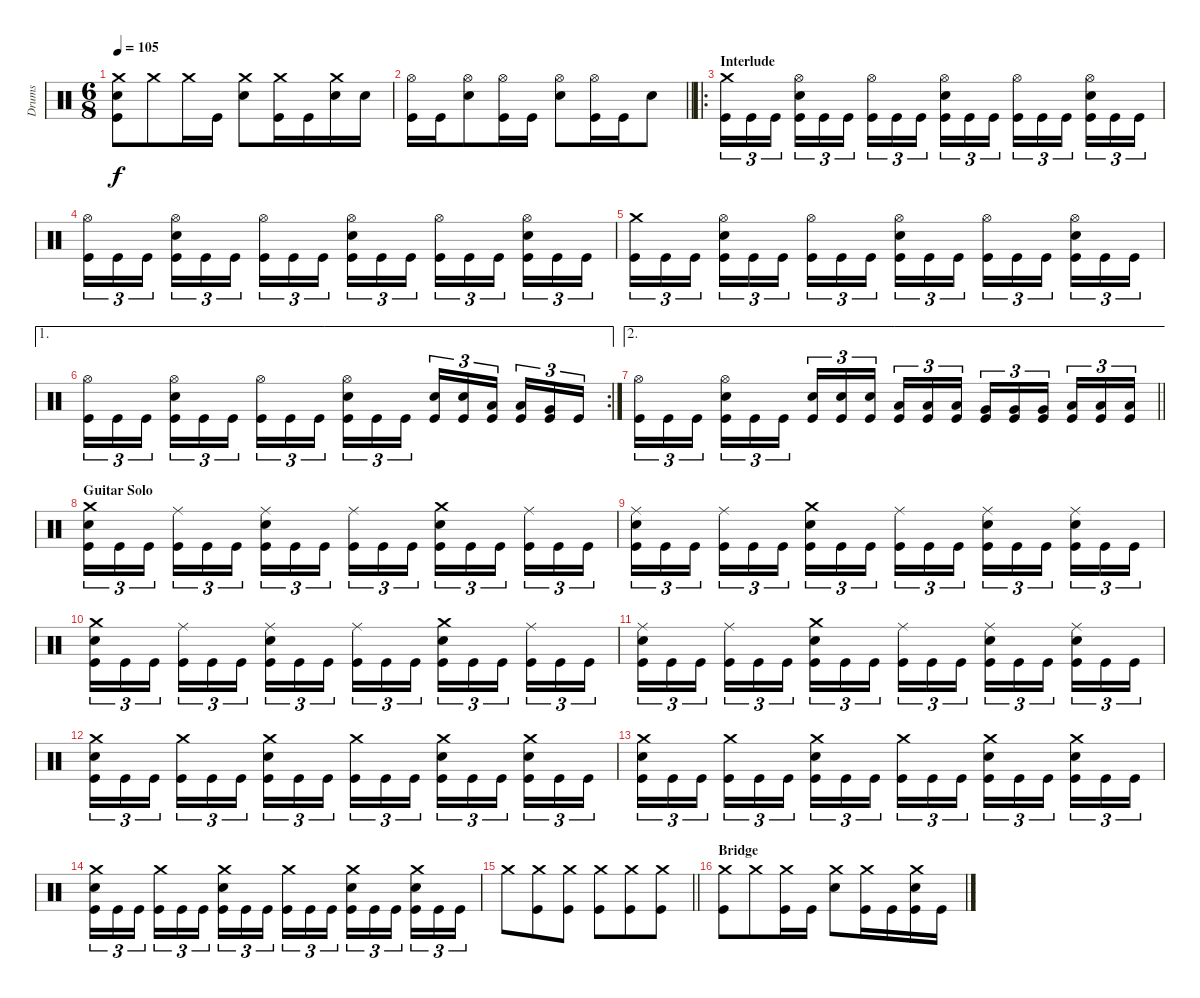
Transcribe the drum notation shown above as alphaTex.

\track ("Drums" "Drums") {instrument percussion}
\staff {score}
\articulation defaults
\ts (6 8)
\tempo 105
\clef neutral
\ks c
("Crash medium (hit)" "Electric Snare (hit)" "Kick (hit)").8{dy f} "Crash medium (hit)".8 "Crash medium (hit)".16 "Kick (hit)".16 ("Crash medium (hit)" "Electric Snare (hit)").8 ("Crash medium (hit)" "Kick (hit)").16 "Kick (hit)".16 ("Crash medium (hit)" "Electric Snare (hit)").16 "Electric Snare (hit)".16 |
\barLineRight lightlight
("Hi-Hat (open)" "Kick (hit)").16 "Kick (hit)".16 ("Hi-Hat (open)" "Electric Snare (hit)").8 ("Hi-Hat (open)" "Kick (hit)").16 "Kick (hit)".16 ("Hi-Hat (open)" "Electric Snare (hit)").8 ("Hi-Hat (open)" "Kick (hit)").16 "Kick (hit)".16 "Electric Snare (hit)".8 |
\ro
\section ("" "Interlude")
("Crash medium (hit)" "Kick (hit)").16{tu (3 2)} "Kick (hit)".16{tu (3 2)} "Kick (hit)".16{tu (3 2) beam splitsecondary} ("Hi-Hat (open)" "Electric Snare (hit)" "Kick (hit)").16{tu (3 2)} "Kick (hit)".16{tu (3 2)} "Kick (hit)".16{tu (3 2) beam splitsecondary} ("Hi-Hat (open)" "Kick (hit)").16{tu (3 2)} "Kick (hit)".16{tu (3 2)} "Kick (hit)".16{tu (3 2)} ("Hi-Hat (open)" "Electric Snare (hit)" "Kick (hit)").16{tu (3 2)} "Kick (hit)".16{tu (3 2)} "Kick (hit)".16{tu (3 2) beam splitsecondary} ("Hi-Hat (open)" "Kick (hit)").16{tu (3 2)} "Kick (hit)".16{tu (3 2)} "Kick (hit)".16{tu (3 2) beam splitsecondary} ("Hi-Hat (open)" "Electric Snare (hit)" "Kick (hit)").16{tu (3 2)} "Kick (hit)".16{tu (3 2)} "Kick (hit)".16{tu (3 2)} |
("Hi-Hat (open)" "Kick (hit)").16{tu (3 2)} "Kick (hit)".16{tu (3 2)} "Kick (hit)".16{tu (3 2) beam splitsecondary} ("Hi-Hat (open)" "Electric Snare (hit)" "Kick (hit)").16{tu (3 2)} "Kick (hit)".16{tu (3 2)} "Kick (hit)".16{tu (3 2) beam splitsecondary} ("Hi-Hat (open)" "Kick (hit)").16{tu (3 2)} "Kick (hit)".16{tu (3 2)} "Kick (hit)".16{tu (3 2)} ("Hi-Hat (open)" "Electric Snare (hit)" "Kick (hit)").16{tu (3 2)} "Kick (hit)".16{tu (3 2)} "Kick (hit)".16{tu (3 2) beam splitsecondary} ("Hi-Hat (open)" "Kick (hit)").16{tu (3 2)} "Kick (hit)".16{tu (3 2)} "Kick (hit)".16{tu (3 2) beam splitsecondary} ("Hi-Hat (open)" "Electric Snare (hit)" "Kick (hit)").16{tu (3 2)} "Kick (hit)".16{tu (3 2)} "Kick (hit)".16{tu (3 2)} |
("Crash medium (hit)" "Kick (hit)").16{tu (3 2)} "Kick (hit)".16{tu (3 2)} "Kick (hit)".16{tu (3 2) beam splitsecondary} ("Hi-Hat (open)" "Electric Snare (hit)" "Kick (hit)").16{tu (3 2)} "Kick (hit)".16{tu (3 2)} "Kick (hit)".16{tu (3 2) beam splitsecondary} ("Hi-Hat (open)" "Kick (hit)").16{tu (3 2)} "Kick (hit)".16{tu (3 2)} "Kick (hit)".16{tu (3 2)} ("Hi-Hat (open)" "Electric Snare (hit)" "Kick (hit)").16{tu (3 2)} "Kick (hit)".16{tu (3 2)} "Kick (hit)".16{tu (3 2) beam splitsecondary} ("Hi-Hat (open)" "Kick (hit)").16{tu (3 2)} "Kick (hit)".16{tu (3 2)} "Kick (hit)".16{tu (3 2) beam splitsecondary} ("Hi-Hat (open)" "Electric Snare (hit)" "Kick (hit)").16{tu (3 2)} "Kick (hit)".16{tu (3 2)} "Kick (hit)".16{tu (3 2)} |
\ae 1
\rc 2
("Hi-Hat (open)" "Kick (hit)").16{tu (3 2)} "Kick (hit)".16{tu (3 2)} "Kick (hit)".16{tu (3 2) beam splitsecondary} ("Hi-Hat (open)" "Electric Snare (hit)" "Kick (hit)").16{tu (3 2)} "Kick (hit)".16{tu (3 2)} "Kick (hit)".16{tu (3 2) beam splitsecondary} ("Hi-Hat (open)" "Kick (hit)").16{tu (3 2)} "Kick (hit)".16{tu (3 2)} "Kick (hit)".16{tu (3 2)} ("Hi-Hat (open)" "Electric Snare (hit)" "Kick (hit)").16{tu (3 2)} "Kick (hit)".16{tu (3 2)} "Kick (hit)".16{tu (3 2) beam splitsecondary} ("Electric Snare (hit)" "Kick (hit)").16{tu (3 2)} ("Electric Snare (hit)" "Kick (hit)").16{tu (3 2)} ("Low Tom (hit)" "Kick (hit)").16{tu (3 2) beam splitsecondary} ("Low Tom (hit)" "Kick (hit)").16{tu (3 2)} ("Very Low Tom (hit)" "Kick (hit)").16{tu (3 2)} "Kick (hit)".16{tu (3 2)} |
\ae 2
\barLineRight lightlight
("Hi-Hat (open)" "Kick (hit)").16{tu (3 2)} "Kick (hit)".16{tu (3 2)} "Kick (hit)".16{tu (3 2) beam splitsecondary} ("Hi-Hat (open)" "Electric Snare (hit)" "Kick (hit)").16{tu (3 2)} "Kick (hit)".16{tu (3 2)} "Kick (hit)".16{tu (3 2) beam splitsecondary} ("Electric Snare (hit)" "Kick (hit)").16{tu (3 2)} ("Electric Snare (hit)" "Kick (hit)").16{tu (3 2)} ("Electric Snare (hit)" "Kick (hit)").16{tu (3 2)} ("Low Tom (hit)" "Kick (hit)").16{tu (3 2)} ("Low Tom (hit)" "Kick (hit)").16{tu (3 2)} ("Low Tom (hit)" "Kick (hit)").16{tu (3 2) beam splitsecondary} ("Very Low Tom (hit)" "Kick (hit)").16{tu (3 2)} ("Very Low Tom (hit)" "Kick (hit)").16{tu (3 2)} ("Very Low Tom (hit)" "Kick (hit)").16{tu (3 2) beam splitsecondary} ("Low Floor Tom (hit)" "Kick (hit)").16{tu (3 2)} ("Low Floor Tom (hit)" "Kick (hit)").16{tu (3 2)} ("Low Floor Tom (hit)" "Kick (hit)").16{tu (3 2)} |
\section ("" "Guitar Solo")
("Crash medium (hit)" "Electric Snare (hit)" "Kick (hit)").16{tu (3 2)} "Kick (hit)".16{tu (3 2)} "Kick (hit)".16{tu (3 2) beam splitsecondary} ("Ride (middle)" "Kick (hit)").16{tu (3 2)} "Kick (hit)".16{tu (3 2)} "Kick (hit)".16{tu (3 2) beam splitsecondary} ("Ride (middle)" "Electric Snare (hit)" "Kick (hit)").16{tu (3 2)} "Kick (hit)".16{tu (3 2)} "Kick (hit)".16{tu (3 2)} ("Ride (middle)" "Kick (hit)").16{tu (3 2)} "Kick (hit)".16{tu (3 2)} "Kick (hit)".16{tu (3 2) beam splitsecondary} ("Crash medium (hit)" "Electric Snare (hit)" "Kick (hit)").16{tu (3 2)} "Kick (hit)".16{tu (3 2)} "Kick (hit)".16{tu (3 2) beam splitsecondary} ("Ride (middle)" "Kick (hit)").16{tu (3 2)} "Kick (hit)".16{tu (3 2)} "Kick (hit)".16{tu (3 2)} |
("Ride (middle)" "Electric Snare (hit)" "Kick (hit)").16{tu (3 2)} "Kick (hit)".16{tu (3 2)} "Kick (hit)".16{tu (3 2) beam splitsecondary} ("Ride (middle)" "Kick (hit)").16{tu (3 2)} "Kick (hit)".16{tu (3 2)} "Kick (hit)".16{tu (3 2) beam splitsecondary} ("Crash medium (hit)" "Electric Snare (hit)" "Kick (hit)").16{tu (3 2)} "Kick (hit)".16{tu (3 2)} "Kick (hit)".16{tu (3 2)} ("Ride (middle)" "Kick (hit)").16{tu (3 2)} "Kick (hit)".16{tu (3 2)} "Kick (hit)".16{tu (3 2) beam splitsecondary} ("Ride (middle)" "Electric Snare (hit)" "Kick (hit)").16{tu (3 2)} "Kick (hit)".16{tu (3 2)} "Kick (hit)".16{tu (3 2) beam splitsecondary} ("Ride (middle)" "Electric Snare (hit)" "Kick (hit)").16{tu (3 2)} "Kick (hit)".16{tu (3 2)} "Kick (hit)".16{tu (3 2)} |
("Crash medium (hit)" "Electric Snare (hit)" "Kick (hit)").16{tu (3 2)} "Kick (hit)".16{tu (3 2)} "Kick (hit)".16{tu (3 2) beam splitsecondary} ("Ride (middle)" "Kick (hit)").16{tu (3 2)} "Kick (hit)".16{tu (3 2)} "Kick (hit)".16{tu (3 2) beam splitsecondary} ("Ride (middle)" "Electric Snare (hit)" "Kick (hit)").16{tu (3 2)} "Kick (hit)".16{tu (3 2)} "Kick (hit)".16{tu (3 2)} ("Ride (middle)" "Kick (hit)").16{tu (3 2)} "Kick (hit)".16{tu (3 2)} "Kick (hit)".16{tu (3 2) beam splitsecondary} ("Crash medium (hit)" "Electric Snare (hit)" "Kick (hit)").16{tu (3 2)} "Kick (hit)".16{tu (3 2)} "Kick (hit)".16{tu (3 2) beam splitsecondary} ("Ride (middle)" "Kick (hit)").16{tu (3 2)} "Kick (hit)".16{tu (3 2)} "Kick (hit)".16{tu (3 2)} |
("Ride (middle)" "Electric Snare (hit)" "Kick (hit)").16{tu (3 2)} "Kick (hit)".16{tu (3 2)} "Kick (hit)".16{tu (3 2) beam splitsecondary} ("Ride (middle)" "Kick (hit)").16{tu (3 2)} "Kick (hit)".16{tu (3 2)} "Kick (hit)".16{tu (3 2) beam splitsecondary} ("Crash medium (hit)" "Electric Snare (hit)" "Kick (hit)").16{tu (3 2)} "Kick (hit)".16{tu (3 2)} "Kick (hit)".16{tu (3 2)} ("Ride (middle)" "Kick (hit)").16{tu (3 2)} "Kick (hit)".16{tu (3 2)} "Kick (hit)".16{tu (3 2) beam splitsecondary} ("Ride (middle)" "Electric Snare (hit)" "Kick (hit)").16{tu (3 2)} "Kick (hit)".16{tu (3 2)} "Kick (hit)".16{tu (3 2) beam splitsecondary} ("Ride (middle)" "Electric Snare (hit)" "Kick (hit)").16{tu (3 2)} "Kick (hit)".16{tu (3 2)} "Kick (hit)".16{tu (3 2)} |
("Crash medium (hit)" "Electric Snare (hit)" "Kick (hit)").16{tu (3 2)} "Kick (hit)".16{tu (3 2)} "Kick (hit)".16{tu (3 2) beam splitsecondary} ("Crash medium (hit)" "Kick (hit)").16{tu (3 2)} "Kick (hit)".16{tu (3 2)} "Kick (hit)".16{tu (3 2) beam splitsecondary} ("Crash medium (hit)" "Electric Snare (hit)" "Kick (hit)").16{tu (3 2)} "Kick (hit)".16{tu (3 2)} "Kick (hit)".16{tu (3 2)} ("Crash medium (hit)" "Kick (hit)").16{tu (3 2)} "Kick (hit)".16{tu (3 2)} "Kick (hit)".16{tu (3 2) beam splitsecondary} ("Crash medium (hit)" "Electric Snare (hit)" "Kick (hit)").16{tu (3 2)} "Kick (hit)".16{tu (3 2)} "Kick (hit)".16{tu (3 2) beam splitsecondary} ("Crash medium (hit)" "Electric Snare (hit)" "Kick (hit)").16{tu (3 2)} "Kick (hit)".16{tu (3 2)} "Kick (hit)".16{tu (3 2)} |
("Crash medium (hit)" "Electric Snare (hit)" "Kick (hit)").16{tu (3 2)} "Kick (hit)".16{tu (3 2)} "Kick (hit)".16{tu (3 2) beam splitsecondary} ("Crash medium (hit)" "Kick (hit)").16{tu (3 2)} "Kick (hit)".16{tu (3 2)} "Kick (hit)".16{tu (3 2) beam splitsecondary} ("Crash medium (hit)" "Electric Snare (hit)" "Kick (hit)").16{tu (3 2)} "Kick (hit)".16{tu (3 2)} "Kick (hit)".16{tu (3 2)} ("Crash medium (hit)" "Kick (hit)").16{tu (3 2)} "Kick (hit)".16{tu (3 2)} "Kick (hit)".16{tu (3 2) beam splitsecondary} ("Crash medium (hit)" "Electric Snare (hit)" "Kick (hit)").16{tu (3 2)} "Kick (hit)".16{tu (3 2)} "Kick (hit)".16{tu (3 2) beam splitsecondary} ("Crash medium (hit)" "Electric Snare (hit)" "Kick (hit)").16{tu (3 2)} "Kick (hit)".16{tu (3 2)} "Kick (hit)".16{tu (3 2)} |
("Crash medium (hit)" "Electric Snare (hit)" "Kick (hit)").16{tu (3 2)} "Kick (hit)".16{tu (3 2)} "Kick (hit)".16{tu (3 2) beam splitsecondary} ("Crash medium (hit)" "Kick (hit)").16{tu (3 2)} "Kick (hit)".16{tu (3 2)} "Kick (hit)".16{tu (3 2) beam splitsecondary} ("Crash medium (hit)" "Electric Snare (hit)" "Kick (hit)").16{tu (3 2)} "Kick (hit)".16{tu (3 2)} "Kick (hit)".16{tu (3 2)} ("Crash medium (hit)" "Kick (hit)").16{tu (3 2)} "Kick (hit)".16{tu (3 2)} "Kick (hit)".16{tu (3 2) beam splitsecondary} ("Crash medium (hit)" "Electric Snare (hit)" "Kick (hit)").16{tu (3 2)} "Kick (hit)".16{tu (3 2)} "Kick (hit)".16{tu (3 2) beam splitsecondary} ("Crash medium (hit)" "Electric Snare (hit)" "Kick (hit)").16{tu (3 2)} "Kick (hit)".16{tu (3 2)} "Kick (hit)".16{tu (3 2)} |
\barLineRight lightlight "Crash medium (hit)".8
("Crash medium (hit)" "Kick (hit)").8 ("Crash medium (hit)" "Kick (hit)").8 ("Crash medium (hit)" "Kick (hit)").8 ("Crash medium (hit)" "Kick (hit)").8 ("Crash medium (hit)" "Kick (hit)").8 |
\section ("" "Bridge")
("Crash medium (hit)" "Kick (hit)").8 "Crash medium (hit)".8 ("Crash medium (hit)" "Kick (hit)").16 "Kick (hit)".16 ("Crash medium (hit)" "Electric Snare (hit)").8 ("Crash medium (hit)" "Kick (hit)").16 "Kick (hit)".16 ("Crash medium (hit)" "Electric Snare (hit)" "Kick (hit)").16 "Kick (hit)".16
